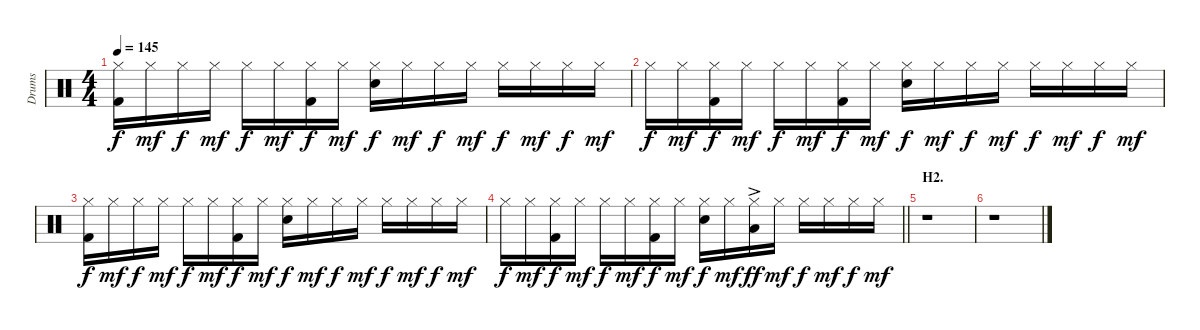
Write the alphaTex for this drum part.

\track ("Drums" "Drums") {instrument percussion}
\staff {score}
\articulation defaults
\ts (4 4)
\tempo 145
\clef neutral
\ks c
("Hi-Hat (closed)" "Kick (hit) 2").16{dy f} "Hi-Hat (closed)".16{dy mf} "Hi-Hat (closed)".16{dy f} "Hi-Hat (closed)".16{dy mf} "Hi-Hat (closed)".16{dy f} "Hi-Hat (closed)".16{dy mf} ("Hi-Hat (closed)" "Kick (hit) 2").16{dy f} "Hi-Hat (closed)".16{dy mf} ("Hi-Hat (closed)" "Electric Snare (hit)").16{dy f} "Hi-Hat (closed)".16{dy mf} "Hi-Hat (closed)".16{dy f} "Hi-Hat (closed)".16{dy mf} "Hi-Hat (closed)".16{dy f} "Hi-Hat (closed)".16{dy mf} "Hi-Hat (closed)".16{dy f} "Hi-Hat (closed)".16{dy mf} |
"Hi-Hat (closed)".16{dy f} "Hi-Hat (closed)".16{dy mf} ("Hi-Hat (closed)" "Kick (hit) 2").16{dy f} "Hi-Hat (closed)".16{dy mf} "Hi-Hat (closed)".16{dy f} "Hi-Hat (closed)".16{dy mf} ("Hi-Hat (closed)" "Kick (hit) 2").16{dy f} "Hi-Hat (closed)".16{dy mf} ("Hi-Hat (closed)" "Electric Snare (hit)").16{dy f} "Hi-Hat (closed)".16{dy mf} "Hi-Hat (closed)".16{dy f} "Hi-Hat (closed)".16{dy mf} "Hi-Hat (closed)".16{dy f} "Hi-Hat (closed)".16{dy mf} "Hi-Hat (closed)".16{dy f} "Hi-Hat (closed)".16{dy mf} |
("Hi-Hat (closed)" "Kick (hit) 2").16{dy f} "Hi-Hat (closed)".16{dy mf} "Hi-Hat (closed)".16{dy f} "Hi-Hat (closed)".16{dy mf} "Hi-Hat (closed)".16{dy f} "Hi-Hat (closed)".16{dy mf} ("Hi-Hat (closed)" "Kick (hit) 2").16{dy f} "Hi-Hat (closed)".16{dy mf} ("Hi-Hat (closed)" "Electric Snare (hit)").16{dy f} "Hi-Hat (closed)".16{dy mf} "Hi-Hat (closed)".16{dy f} "Hi-Hat (closed)".16{dy mf} "Hi-Hat (closed)".16{dy f} "Hi-Hat (closed)".16{dy mf} "Hi-Hat (closed)".16{dy f} "Hi-Hat (closed)".16{dy mf} |
\barLineRight lightlight "Hi-Hat (closed)".16{dy f} "Hi-Hat (closed)".16{dy mf}
("Hi-Hat (closed)" "Kick (hit) 2").16{dy f} "Hi-Hat (closed)".16{dy mf} "Hi-Hat (closed)".16{dy f} "Hi-Hat (closed)".16{dy mf} ("Hi-Hat (closed)" "Kick (hit) 2").16{dy f} "Hi-Hat (closed)".16{dy mf} ("Hi-Hat (closed)" "Electric Snare (hit)").16{dy f} "Hi-Hat (closed)".16{dy mf} ("Low Tom (hit)"{ac} "Hi-Hat (closed)").16{dy ff} "Hi-Hat (closed)".16{dy mf} "Hi-Hat (closed)".16{dy f} "Hi-Hat (closed)".16{dy mf} "Hi-Hat (closed)".16{dy f} "Hi-Hat (closed)".16{dy mf} |
\section ("" "H2.")
r.1 |
r.1
